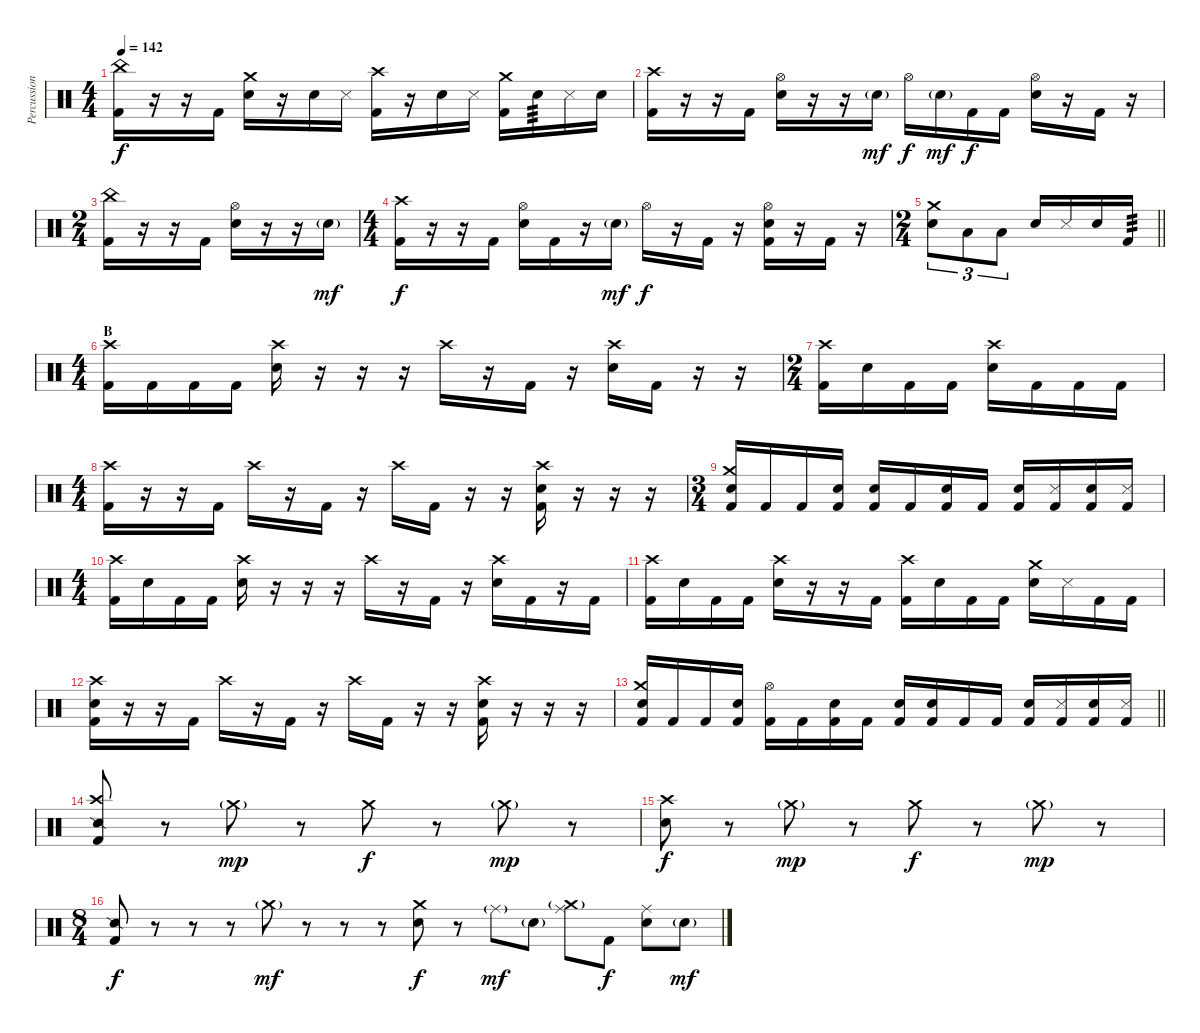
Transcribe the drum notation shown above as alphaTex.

\track ("Percussion" "Percussion") {instrument percussion}
\staff {score}
\articulation defaults
\ts (4 4)
\tempo 142
\clef neutral
\ks c
("China (hit)" "Kick (hit) 2").16{dy f} r.16 r.16 "Kick (hit) 2".16 ("Crash medium (hit)" "Snare (hit) 2").16 r.16 "Snare (hit) 2".16 "Metronome (hit)".16 ("Crash high (hit)" "Kick (hit) 2").16 r.16 "Snare (hit) 2".16 "Metronome (hit)".16 ("Crash medium (hit)" "Kick (hit) 2").16 "Snare (hit) 2".16{tp 3} "Metronome (hit)".16 "Snare (hit) 2".16 |
("Crash high (hit)" "Kick (hit) 2").16 r.16 r.16 "Kick (hit) 2".16 ("Hi-Hat (open)" "Snare (hit) 2").16 r.16 r.16 "Snare (hit) 2"{g}.16{dy mf} "Hi-Hat (open)".16{dy f} "Snare (hit) 2"{g}.16{dy mf} "Kick (hit) 2".16{dy f} "Kick (hit) 2".16 ("Hi-Hat (open)" "Snare (hit) 2").16 r.16 "Kick (hit) 2".16 r.16 |
\ts (2 4)
("China (hit)" "Kick (hit) 2").16 r.16 r.16 "Kick (hit) 2".16 ("Hi-Hat (open)" "Snare (hit) 2").16 r.16 r.16 "Snare (hit) 2"{g}.16{dy mf} |
\ts (4 4)
("Crash high (hit)" "Kick (hit) 2").16{dy f} r.16 r.16 "Kick (hit) 2".16 ("Hi-Hat (open)" "Snare (hit) 2").16 "Kick (hit) 2".16 r.16 "Snare (hit) 2"{g}.16{dy mf} "Hi-Hat (open)".16{dy f} r.16 "Kick (hit) 2".16 r.16 ("Hi-Hat (open)" "Snare (hit) 2" "Kick (hit) 2").16 r.16 "Kick (hit) 2".16 r.16 |
\ts (2 4)
\barLineRight lightlight
("Crash medium (hit)" "Snare (hit) 2").8{tu (3 2)} "Low Tom (hit)".8{tu (3 2)} "Low Tom (hit)".8{tu (3 2)} "Snare (hit) 2".16 "Metronome (hit)".16 "Snare (hit) 2".16 "Kick (hit) 2".16{tp 3} |
\ts (4 4)
\section ("" "B")
("Crash high (hit)" "Kick (hit) 2").16 "Kick (hit) 2".16 "Kick (hit) 2".16 "Kick (hit) 2".16 ("Crash high (hit)" "Snare (hit) 2").16 r.16 r.16 r.16 "Crash high (hit)".16 r.16 "Kick (hit) 2".16 r.16 ("Crash high (hit)" "Snare (hit) 2").16 "Kick (hit) 2".16 r.16 r.16 |
\ts (2 4)
("Crash high (hit)" "Kick (hit) 2").16 "Snare (hit) 2".16 "Kick (hit) 2".16 "Kick (hit) 2".16 ("Crash high (hit)" "Snare (hit) 2").16 "Kick (hit) 2".16 "Kick (hit) 2".16 "Kick (hit) 2".16 |
\ts (4 4)
("Crash high (hit)" "Kick (hit) 2").16 r.16 r.16 "Kick (hit) 2".16 "Crash high (hit)".16 r.16 "Kick (hit) 2".16 r.16 "Crash high (hit)".16 "Kick (hit) 2".16 r.16 r.16 ("Crash high (hit)" "Snare (hit) 2" "Kick (hit) 2").16 r.16 r.16 r.16 |
\ts (3 4)
("Crash medium (hit)" "Snare (hit) 2" "Kick (hit) 2").16 "Kick (hit) 2".16 "Kick (hit) 2".16 ("Snare (hit) 2" "Kick (hit) 2").16 ("Snare (hit)" "Kick (hit) 2").16 "Kick (hit) 2".16 ("Snare (hit) 2" "Kick (hit) 2").16 "Kick (hit) 2".16 ("Snare (hit) 2" "Kick (hit) 2").16 ("Metronome (hit)" "Kick (hit) 2").16 ("Snare (hit) 2" "Kick (hit) 2").16 ("Metronome (hit)" "Kick (hit) 2").16 |
\ts (4 4)
("Crash high (hit)" "Kick (hit) 2").16 "Snare (hit) 2".16 "Kick (hit) 2".16 "Kick (hit) 2".16 ("Crash high (hit)" "Snare (hit) 2").16 r.16 r.16 r.16 "Crash high (hit)".16 r.16 "Kick (hit) 2".16 r.16 ("Crash high (hit)" "Snare (hit) 2").16 "Kick (hit) 2".16 r.16 "Kick (hit) 2".16 |
("Crash high (hit)" "Kick (hit) 2").16 "Snare (hit) 2".16 "Kick (hit) 2".16 "Kick (hit) 2".16 ("Crash high (hit)" "Snare (hit) 2").16 r.16 r.16 "Kick (hit) 2".16 ("Crash high (hit)" "Kick (hit) 2").16 "Snare (hit) 2".16 "Kick (hit) 2".16 "Kick (hit) 2".16 ("Crash medium (hit)" "Snare (hit) 2").16 "Metronome (hit)".16 "Kick (hit) 2".16 "Kick (hit) 2".16 |
("Crash high (hit)" "Snare (hit) 2" "Kick (hit) 2").16 r.16 r.16 "Kick (hit) 2".16 "Crash high (hit)".16 r.16 "Kick (hit) 2".16 r.16 "Crash high (hit)".16 "Kick (hit) 2".16 r.16 r.16 ("Crash high (hit)" "Snare (hit) 2" "Kick (hit) 2").16 r.16 r.16 r.16 |
\barLineRight lightlight
("Crash medium (hit)" "Snare (hit) 2" "Kick (hit) 2").16 "Kick (hit) 2".16 "Kick (hit) 2".16 ("Snare (hit) 2" "Kick (hit) 2").16 ("Hi-Hat (open)" "Kick (hit) 2").16 "Kick (hit) 2".16 ("Snare (hit) 2" "Kick (hit) 2").16 "Kick (hit) 2".16 ("Snare (hit)" "Kick (hit) 2").16 ("Snare (hit) 2" "Kick (hit) 2").16 "Kick (hit) 2".16 "Kick (hit) 2".16 ("Snare (hit) 2" "Kick (hit) 2").16 ("Metronome (hit)" "Kick (hit) 2").16 ("Snare (hit) 2" "Kick (hit) 2").16 ("Metronome (hit)" "Kick (hit) 2").16 |
("Snare (side stick) 2" "Crash high (hit)" "Kick (hit) 2").8 r.8 "Crash medium (hit)"{g}.8{dy mp} r.8 "Crash medium (hit)".8{dy f} r.8 "Crash medium (hit)"{g}.8{dy mp} r.8 |
("Crash high (hit)" "Snare (hit) 2").8{dy f} r.8 "Crash medium (hit)"{g}.8{dy mp} r.8 "Crash medium (hit)".8{dy f} r.8 "Crash medium (hit)"{g}.8{dy mp} r.8 |
\ts (8 4)
("Snare (side stick) 2" "Kick (hit) 2").8{dy f} r.8 r.8 r.8 "Crash medium (hit)"{g}.8{dy mf} r.8 r.8 r.8 ("Crash medium (hit)" "Snare (hit) 2").8{dy f} r.8 "Ride (middle)"{g}.8{dy mf} "Snare (hit) 2"{g}.8 ("Ride (middle)" "Crash medium (hit)"{g}).8 "Kick (hit) 2".8{dy f} ("Ride (middle)" "Snare (hit) 2").8 "Snare (hit) 2"{g}.8{dy mf}
